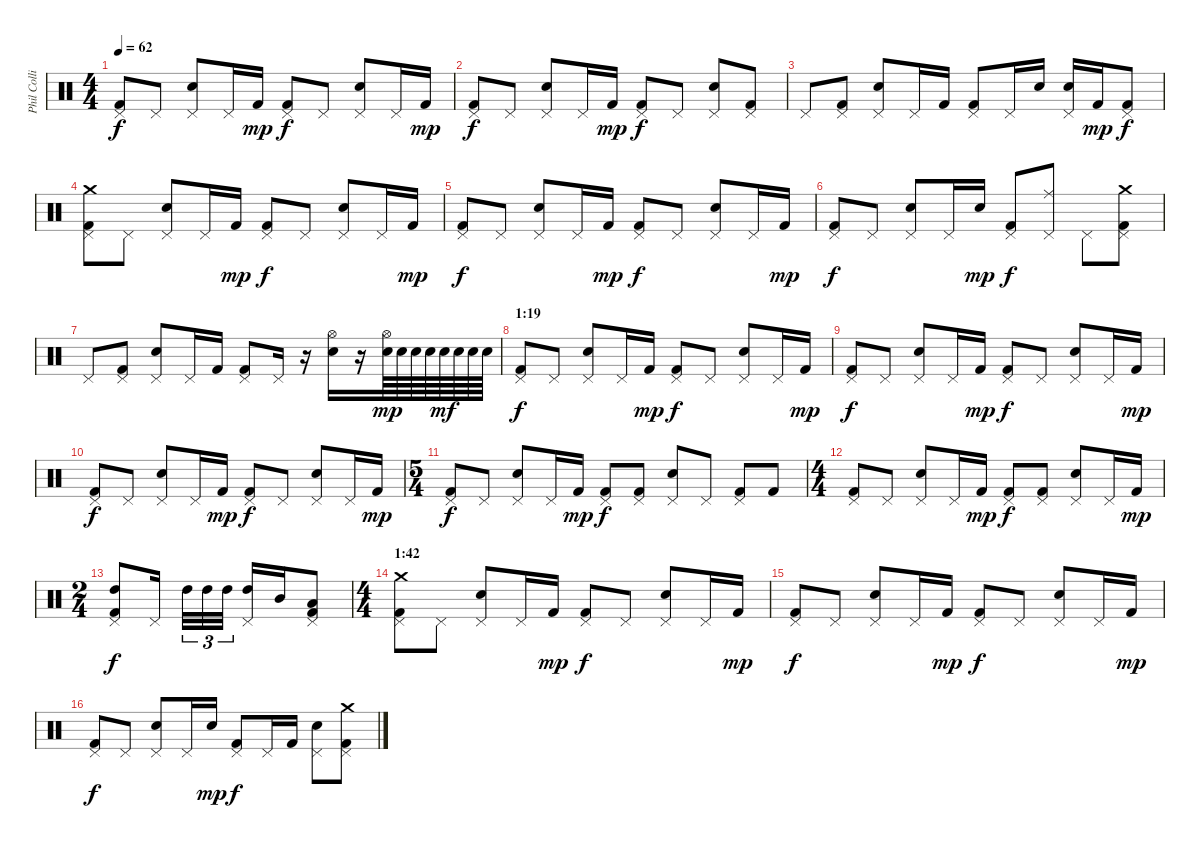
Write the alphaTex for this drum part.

\track ("Phil Collins (drums)" "Phil Colli") {instrument percussion}
\staff {score}
\articulation defaults
\ts (4 4)
\tempo 62
\clef neutral
\ks c
("Pedal Hi-Hat (hit)" "Kick (hit) 2").8{dy f} "Pedal Hi-Hat (hit)".8 ("Pedal Hi-Hat (hit)" "Electric Snare (hit)").8 "Pedal Hi-Hat (hit)".16 "Kick (hit) 2".16{dy mp} ("Pedal Hi-Hat (hit)" "Kick (hit) 2").8{dy f} "Pedal Hi-Hat (hit)".8 ("Pedal Hi-Hat (hit)" "Electric Snare (hit)").8 "Pedal Hi-Hat (hit)".16 "Kick (hit) 2".16{dy mp} |
("Pedal Hi-Hat (hit)" "Kick (hit) 2").8{dy f} "Pedal Hi-Hat (hit)".8 ("Pedal Hi-Hat (hit)" "Electric Snare (hit)").8 "Pedal Hi-Hat (hit)".16 "Kick (hit) 2".16{dy mp} ("Pedal Hi-Hat (hit)" "Kick (hit) 2").8{dy f} "Pedal Hi-Hat (hit)".8 ("Pedal Hi-Hat (hit)" "Electric Snare (hit)").8 ("Pedal Hi-Hat (hit)" "Kick (hit) 2").8 |
"Pedal Hi-Hat (hit)".8 ("Pedal Hi-Hat (hit)" "Kick (hit) 2").8 ("Pedal Hi-Hat (hit)" "Electric Snare (hit)").8 "Pedal Hi-Hat (hit)".16 "Kick (hit) 2".16 ("Pedal Hi-Hat (hit)" "Kick (hit) 2").8 "Pedal Hi-Hat (hit)".16 "Electric Snare (hit)".16 ("Pedal Hi-Hat (hit)" "Electric Snare (hit)").16 "Kick (hit) 2".16{dy mp} ("Pedal Hi-Hat (hit)" "Kick (hit) 2").8{dy f} |
("Crash medium (hit)" "Pedal Hi-Hat (hit)" "Kick (hit) 2").8 "Pedal Hi-Hat (hit)".8 ("Pedal Hi-Hat (hit)" "Electric Snare (hit)").8 "Pedal Hi-Hat (hit)".16 "Kick (hit) 2".16{dy mp} ("Pedal Hi-Hat (hit)" "Kick (hit) 2").8{dy f} "Pedal Hi-Hat (hit)".8 ("Pedal Hi-Hat (hit)" "Electric Snare (hit)").8 "Pedal Hi-Hat (hit)".16 "Kick (hit) 2".16{dy mp} |
("Pedal Hi-Hat (hit)" "Kick (hit) 2").8{dy f} "Pedal Hi-Hat (hit)".8 ("Pedal Hi-Hat (hit)" "Electric Snare (hit)").8 "Pedal Hi-Hat (hit)".16 "Kick (hit) 2".16{dy mp} ("Pedal Hi-Hat (hit)" "Kick (hit) 2").8{dy f} "Pedal Hi-Hat (hit)".8 ("Pedal Hi-Hat (hit)" "Electric Snare (hit)").8 "Pedal Hi-Hat (hit)".16 "Kick (hit) 2".16{dy mp} |
("Pedal Hi-Hat (hit)" "Kick (hit) 2").8{dy f} "Pedal Hi-Hat (hit)".8 ("Pedal Hi-Hat (hit)" "Electric Snare (hit)").8 "Pedal Hi-Hat (hit)".16 "Electric Snare (hit)".16{dy mp} ("Pedal Hi-Hat (hit)" "Kick (hit) 2").8{dy f} ("Ride (middle)" "Pedal Hi-Hat (hit)").8 "Pedal Hi-Hat (hit)".8 ("Crash medium (hit)" "Pedal Hi-Hat (hit)" "Kick (hit) 2").8 |
"Pedal Hi-Hat (hit)".8 ("Pedal Hi-Hat (hit)" "Kick (hit) 2").8 ("Pedal Hi-Hat (hit)" "Electric Snare (hit)").8 "Pedal Hi-Hat (hit)".16 "Kick (hit) 2".16 ("Pedal Hi-Hat (hit)" "Kick (hit) 2").8 "Pedal Hi-Hat (hit)".16 r.16 ("Hi-Hat (open)" "Electric Snare (hit)").16 r.16 ("Hi-Hat (open)" "Electric Snare (hit)").64{dy mp} "Electric Snare (hit)".64 "Electric Snare (hit)".64 "Electric Snare (hit)".64 "Electric Snare (hit)".64{dy mf} "Electric Snare (hit)".64 "Electric Snare (hit)".64 "Electric Snare (hit)".64 |
\section ("" "1:19")
("Pedal Hi-Hat (hit)" "Kick (hit) 2").8{dy f} "Pedal Hi-Hat (hit)".8 ("Pedal Hi-Hat (hit)" "Electric Snare (hit)").8 "Pedal Hi-Hat (hit)".16 "Kick (hit) 2".16{dy mp} ("Pedal Hi-Hat (hit)" "Kick (hit) 2").8{dy f} "Pedal Hi-Hat (hit)".8 ("Pedal Hi-Hat (hit)" "Electric Snare (hit)").8 "Pedal Hi-Hat (hit)".16 "Kick (hit) 2".16{dy mp} |
("Pedal Hi-Hat (hit)" "Kick (hit) 2").8{dy f} "Pedal Hi-Hat (hit)".8 ("Pedal Hi-Hat (hit)" "Electric Snare (hit)").8 "Pedal Hi-Hat (hit)".16 "Kick (hit) 2".16{dy mp} ("Pedal Hi-Hat (hit)" "Kick (hit) 2").8{dy f} "Pedal Hi-Hat (hit)".8 ("Pedal Hi-Hat (hit)" "Electric Snare (hit)").8 "Pedal Hi-Hat (hit)".16 "Kick (hit) 2".16{dy mp} |
("Pedal Hi-Hat (hit)" "Kick (hit) 2").8{dy f} "Pedal Hi-Hat (hit)".8 ("Pedal Hi-Hat (hit)" "Electric Snare (hit)").8 "Pedal Hi-Hat (hit)".16 "Kick (hit) 2".16{dy mp} ("Pedal Hi-Hat (hit)" "Kick (hit) 2").8{dy f} "Pedal Hi-Hat (hit)".8 ("Pedal Hi-Hat (hit)" "Electric Snare (hit)").8 "Pedal Hi-Hat (hit)".16 "Kick (hit) 2".16{dy mp} |
\ts (5 4)
("Pedal Hi-Hat (hit)" "Kick (hit) 2").8{dy f} "Pedal Hi-Hat (hit)".8 ("Pedal Hi-Hat (hit)" "Electric Snare (hit)").8 "Pedal Hi-Hat (hit)".16 "Kick (hit) 2".16{dy mp} ("Pedal Hi-Hat (hit)" "Kick (hit) 2").8{dy f} ("Pedal Hi-Hat (hit)" "Kick (hit) 2").8 ("Pedal Hi-Hat (hit)" "Electric Snare (hit)").8 "Pedal Hi-Hat (hit)".8 ("Pedal Hi-Hat (hit)" "Kick (hit) 2").8 "Kick (hit) 2".8 |
\ts (4 4)
("Pedal Hi-Hat (hit)" "Kick (hit) 2").8 "Pedal Hi-Hat (hit)".8 ("Pedal Hi-Hat (hit)" "Electric Snare (hit)").8 "Pedal Hi-Hat (hit)".16 "Kick (hit) 2".16{dy mp} ("Pedal Hi-Hat (hit)" "Kick (hit) 2").8{dy f} ("Pedal Hi-Hat (hit)" "Kick (hit) 2").8 ("Pedal Hi-Hat (hit)" "Electric Snare (hit)").8 "Pedal Hi-Hat (hit)".16 "Kick (hit) 2".16{dy mp} |
\ts (2 4)
("High Tom (hit)" "Pedal Hi-Hat (hit)" "Kick (hit) 2").8{dy f} "Pedal Hi-Hat (hit)".16 "High Tom (hit)".32{tu (3 2)} "High Tom (hit)".32{tu (3 2)} "High Tom (hit)".32{tu (3 2)} ("High Tom (hit)" "Pedal Hi-Hat (hit)").16 "Mid Tom (hit)".16 ("Low Tom (hit)" "Pedal Hi-Hat (hit)" "Kick (hit) 2").8 |
\ts (4 4)
\section ("" "1:42")
("Crash medium (hit)" "Pedal Hi-Hat (hit)" "Kick (hit) 2").8 "Pedal Hi-Hat (hit)".8 ("Pedal Hi-Hat (hit)" "Electric Snare (hit)").8 "Pedal Hi-Hat (hit)".16 "Kick (hit) 2".16{dy mp} ("Pedal Hi-Hat (hit)" "Kick (hit) 2").8{dy f} "Pedal Hi-Hat (hit)".8 ("Pedal Hi-Hat (hit)" "Electric Snare (hit)").8 "Pedal Hi-Hat (hit)".16 "Kick (hit) 2".16{dy mp} |
("Pedal Hi-Hat (hit)" "Kick (hit) 2").8{dy f} "Pedal Hi-Hat (hit)".8 ("Pedal Hi-Hat (hit)" "Electric Snare (hit)").8 "Pedal Hi-Hat (hit)".16 "Kick (hit) 2".16{dy mp} ("Pedal Hi-Hat (hit)" "Kick (hit) 2").8{dy f} "Pedal Hi-Hat (hit)".8 ("Pedal Hi-Hat (hit)" "Electric Snare (hit)").8 "Pedal Hi-Hat (hit)".16 "Kick (hit) 2".16{dy mp} |
("Pedal Hi-Hat (hit)" "Kick (hit) 2").8{dy f} "Pedal Hi-Hat (hit)".8 ("Pedal Hi-Hat (hit)" "Electric Snare (hit)").8 "Pedal Hi-Hat (hit)".16 "Electric Snare (hit)".16{dy mp} ("Pedal Hi-Hat (hit)" "Kick (hit) 2").8{dy f} "Pedal Hi-Hat (hit)".16 "Kick (hit) 2".16 ("Pedal Hi-Hat (hit)" "Electric Snare (hit)").8 ("Crash medium (hit)" "Pedal Hi-Hat (hit)" "Kick (hit) 2").8
